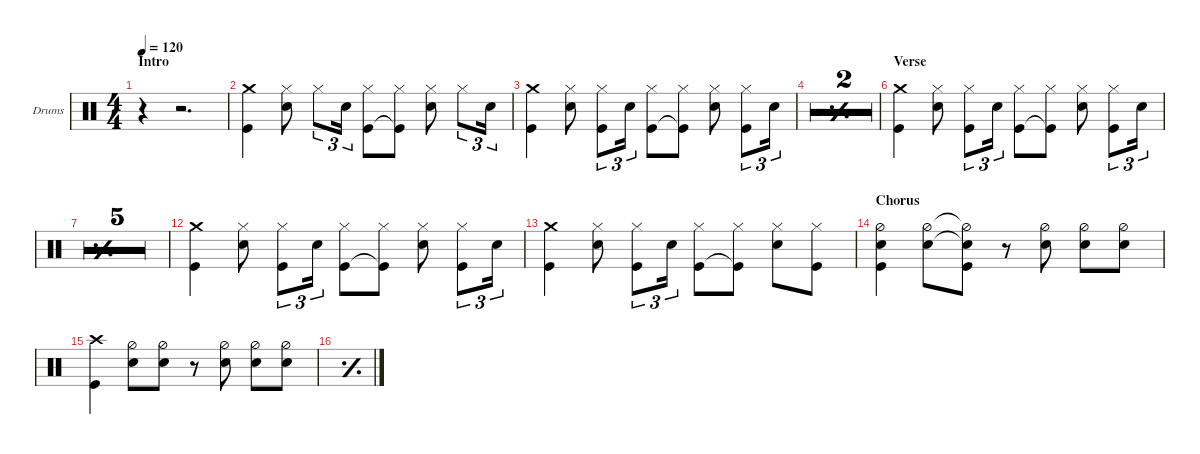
\defaultSystemsLayout 4
\hideDynamics
\bracketExtendMode nobrackets
\firstSystemTrackNameOrientation horizontal
\otherSystemsTrackNameOrientation horizontal
\track ("Drums" "Drums") {multiBarRest instrument percussion}
\staff {score}
\articulation defaults
\ts (4 4)
\section ("" "Intro")
\tempo 120
\clef neutral
\ks c
r.4{dy mf} r.2{d} |
("Kick (hit)" "Crash medium (hit)").4 ("Snare (hit) 2" "Hi-Hat (closed)").8 "Hi-Hat (closed)".8{tu (3 2)} "Snare (hit) 2".16{tu (3 2)} ("Kick (hit)" "Hi-Hat (closed)").8 ("Kick (hit)"{t} "Hi-Hat (closed)").8 ("Snare (hit) 2" "Hi-Hat (closed)").8 "Hi-Hat (closed)".8{tu (3 2)} "Snare (hit) 2".16{tu (3 2)} |
("Kick (hit)" "Crash medium (hit)").4 ("Snare (hit) 2" "Hi-Hat (closed)").8 ("Hi-Hat (closed)" "Kick (hit)").8{tu (3 2)} "Snare (hit) 2".16{tu (3 2)} ("Kick (hit)" "Hi-Hat (closed)").8 ("Kick (hit)"{t} "Hi-Hat (closed)").8 ("Snare (hit) 2" "Hi-Hat (closed)").8 ("Hi-Hat (closed)" "Kick (hit)").8{tu (3 2)} "Snare (hit) 2".16{tu (3 2)} |
\simile simple
|
|
\section ("" "Verse")
\simile none
("Kick (hit)" "Crash medium (hit)").4 ("Snare (hit) 2" "Hi-Hat (closed)").8 ("Hi-Hat (closed)" "Kick (hit)").8{tu (3 2)} "Snare (hit) 2".16{tu (3 2)} ("Kick (hit)" "Hi-Hat (closed)").8 ("Kick (hit)"{t} "Hi-Hat (closed)").8 ("Snare (hit) 2" "Hi-Hat (closed)").8 ("Hi-Hat (closed)" "Kick (hit)").8{tu (3 2)} "Snare (hit) 2".16{tu (3 2)} |
\simile simple
|
\simile firstofdouble
|
\simile secondofdouble
|
\simile firstofdouble
|
\simile secondofdouble
|
\simile none
("Kick (hit)" "Crash medium (hit)").4 ("Snare (hit) 2" "Hi-Hat (closed)").8 ("Hi-Hat (closed)" "Kick (hit)").8{tu (3 2)} "Snare (hit) 2".16{tu (3 2)} ("Kick (hit)" "Hi-Hat (closed)").8 ("Kick (hit)"{t} "Hi-Hat (closed)").8 ("Snare (hit) 2" "Hi-Hat (closed)").8 ("Hi-Hat (closed)" "Kick (hit)").8{tu (3 2)} "Snare (hit) 2".16{tu (3 2)} |
("Kick (hit)" "Crash medium (hit)").4 ("Snare (hit) 2" "Hi-Hat (closed)").8 ("Hi-Hat (closed)" "Kick (hit)").8{tu (3 2)} "Snare (hit) 2".16{tu (3 2)} ("Kick (hit)" "Hi-Hat (closed)").8 ("Kick (hit)"{t} "Hi-Hat (closed)").8 ("Snare (hit) 2" "Hi-Hat (closed)").8 ("Hi-Hat (closed)" "Kick (hit)").8 |
\section ("" "Chorus")
("Kick (hit)" "Snare (hit) 2" "Hi-Hat (half)").4 ("Hi-Hat (half)" "Snare (hit) 2").8 ("Hi-Hat (half)"{t} "Snare (hit) 2"{t} "Kick (hit)").8 r.8 ("Hi-Hat (half)" "Snare (hit) 2").8 ("Hi-Hat (half)" "Snare (hit) 2").8 ("Snare (hit) 2" "Hi-Hat (half)").8 |
("Crash high (hit)" "Kick (hit)").4 ("Snare (hit) 2" "Hi-Hat (half)").8 ("Snare (hit) 2" "Hi-Hat (half)").8 r.8 ("Snare (hit) 2" "Hi-Hat (half)").8 ("Snare (hit) 2" "Hi-Hat (half)").8 ("Snare (hit) 2" "Hi-Hat (half)").8 |
\simile simple
